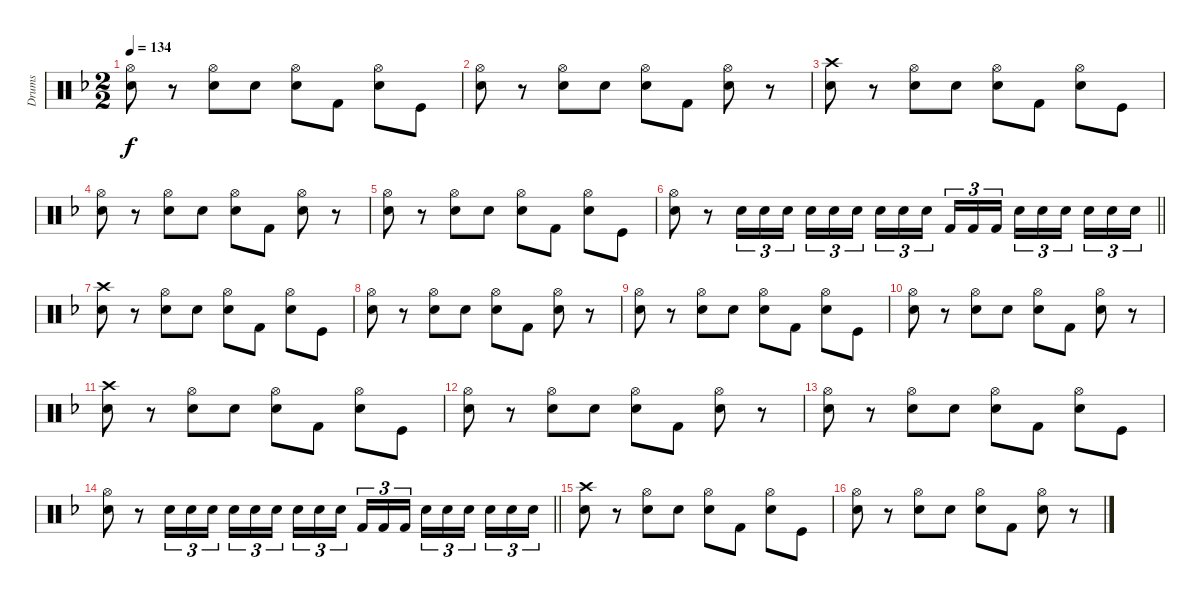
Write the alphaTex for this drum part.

\track ("Drums" "Drums") {instrument percussion}
\staff {score}
\articulation defaults
\ts (2 2)
\tempo 134
\clef neutral
\ks f
("Snare (hit) 2" "Hi-Hat (open)").8{dy f} r.8 ("Snare (hit) 2" "Hi-Hat (open)").8 "Electric Snare (hit)".8 ("Snare (hit) 2" "Hi-Hat (open)").8 "Kick (hit) 2".8 ("Snare (hit) 2" "Hi-Hat (open)").8 "Kick (hit)".8 |
("Snare (hit) 2" "Hi-Hat (open)").8 r.8 ("Snare (hit) 2" "Hi-Hat (open)").8 "Electric Snare (hit)".8 ("Snare (hit) 2" "Hi-Hat (open)").8 "Kick (hit) 2".8 ("Snare (hit) 2" "Hi-Hat (open)").8 r.8 |
("Snare (hit) 2" "Crash high (hit)").8 r.8 ("Snare (hit) 2" "Hi-Hat (open)").8 "Electric Snare (hit)".8 ("Snare (hit) 2" "Hi-Hat (open)").8 "Kick (hit) 2".8 ("Snare (hit) 2" "Hi-Hat (open)").8 "Kick (hit)".8 |
("Snare (hit) 2" "Hi-Hat (open)").8 r.8 ("Snare (hit) 2" "Hi-Hat (open)").8 "Electric Snare (hit)".8 ("Snare (hit) 2" "Hi-Hat (open)").8 "Kick (hit) 2".8 ("Snare (hit) 2" "Hi-Hat (open)").8 r.8 |
("Snare (hit) 2" "Hi-Hat (open)").8 r.8 ("Snare (hit) 2" "Hi-Hat (open)").8 "Electric Snare (hit)".8 ("Snare (hit) 2" "Hi-Hat (open)").8 "Kick (hit) 2".8 ("Snare (hit) 2" "Hi-Hat (open)").8 "Kick (hit)".8 |
\barLineRight lightlight
("Snare (hit) 2" "Hi-Hat (open)").8 r.8 "Snare (hit) 2".16{tu (3 2)} "Snare (hit) 2".16{tu (3 2)} "Snare (hit) 2".16{tu (3 2) beam splitsecondary} "Electric Snare (hit)".16{tu (3 2)} "Electric Snare (hit)".16{tu (3 2)} "Electric Snare (hit)".16{tu (3 2)} "Snare (hit) 2".16{tu (3 2)} "Snare (hit) 2".16{tu (3 2)} "Snare (hit) 2".16{tu (3 2) beam splitsecondary} "Kick (hit) 2".16{tu (3 2)} "Kick (hit) 2".16{tu (3 2)} "Kick (hit) 2".16{tu (3 2) beam splitsecondary} "Electric Snare (hit)".16{tu (3 2)} "Electric Snare (hit)".16{tu (3 2)} "Electric Snare (hit)".16{tu (3 2) beam splitsecondary} "Snare (hit) 2".16{tu (3 2)} "Snare (hit) 2".16{tu (3 2)} "Snare (hit) 2".16{tu (3 2)} |
("Snare (hit) 2" "Crash high (hit)").8 r.8 ("Snare (hit) 2" "Hi-Hat (open)").8 "Electric Snare (hit)".8 ("Snare (hit) 2" "Hi-Hat (open)").8 "Kick (hit) 2".8 ("Snare (hit) 2" "Hi-Hat (open)").8 "Kick (hit)".8 |
("Snare (hit) 2" "Hi-Hat (open)").8 r.8 ("Snare (hit) 2" "Hi-Hat (open)").8 "Electric Snare (hit)".8 ("Snare (hit) 2" "Hi-Hat (open)").8 "Kick (hit) 2".8 ("Snare (hit) 2" "Hi-Hat (open)").8 r.8 |
("Snare (hit) 2" "Hi-Hat (open)").8 r.8 ("Snare (hit) 2" "Hi-Hat (open)").8 "Electric Snare (hit)".8 ("Snare (hit) 2" "Hi-Hat (open)").8 "Kick (hit) 2".8 ("Snare (hit) 2" "Hi-Hat (open)").8 "Kick (hit)".8 |
("Snare (hit) 2" "Hi-Hat (open)").8 r.8 ("Snare (hit) 2" "Hi-Hat (open)").8 "Electric Snare (hit)".8 ("Snare (hit) 2" "Hi-Hat (open)").8 "Kick (hit) 2".8 ("Snare (hit) 2" "Hi-Hat (open)").8 r.8 |
("Snare (hit) 2" "Crash high (hit)").8 r.8 ("Snare (hit) 2" "Hi-Hat (open)").8 "Electric Snare (hit)".8 ("Snare (hit) 2" "Hi-Hat (open)").8 "Kick (hit) 2".8 ("Snare (hit) 2" "Hi-Hat (open)").8 "Kick (hit)".8 |
("Snare (hit) 2" "Hi-Hat (open)").8 r.8 ("Snare (hit) 2" "Hi-Hat (open)").8 "Electric Snare (hit)".8 ("Snare (hit) 2" "Hi-Hat (open)").8 "Kick (hit) 2".8 ("Snare (hit) 2" "Hi-Hat (open)").8 r.8 |
("Snare (hit) 2" "Hi-Hat (open)").8 r.8 ("Snare (hit) 2" "Hi-Hat (open)").8 "Electric Snare (hit)".8 ("Snare (hit) 2" "Hi-Hat (open)").8 "Kick (hit) 2".8 ("Snare (hit) 2" "Hi-Hat (open)").8 "Kick (hit)".8 |
\barLineRight lightlight
("Snare (hit) 2" "Hi-Hat (open)").8 r.8 "Snare (hit) 2".16{tu (3 2)} "Snare (hit) 2".16{tu (3 2)} "Snare (hit) 2".16{tu (3 2) beam splitsecondary} "Electric Snare (hit)".16{tu (3 2)} "Electric Snare (hit)".16{tu (3 2)} "Electric Snare (hit)".16{tu (3 2)} "Snare (hit) 2".16{tu (3 2)} "Snare (hit) 2".16{tu (3 2)} "Snare (hit) 2".16{tu (3 2) beam splitsecondary} "Kick (hit) 2".16{tu (3 2)} "Kick (hit) 2".16{tu (3 2)} "Kick (hit) 2".16{tu (3 2) beam splitsecondary} "Electric Snare (hit)".16{tu (3 2)} "Electric Snare (hit)".16{tu (3 2)} "Electric Snare (hit)".16{tu (3 2) beam splitsecondary} "Snare (hit) 2".16{tu (3 2)} "Snare (hit) 2".16{tu (3 2)} "Snare (hit) 2".16{tu (3 2)} |
("Snare (hit) 2" "Crash high (hit)").8 r.8 ("Snare (hit) 2" "Hi-Hat (open)").8 "Electric Snare (hit)".8 ("Snare (hit) 2" "Hi-Hat (open)").8 "Kick (hit) 2".8 ("Snare (hit) 2" "Hi-Hat (open)").8 "Kick (hit)".8 |
("Snare (hit) 2" "Hi-Hat (open)").8 r.8 ("Snare (hit) 2" "Hi-Hat (open)").8 "Electric Snare (hit)".8 ("Snare (hit) 2" "Hi-Hat (open)").8 "Kick (hit) 2".8 ("Snare (hit) 2" "Hi-Hat (open)").8 r.8
